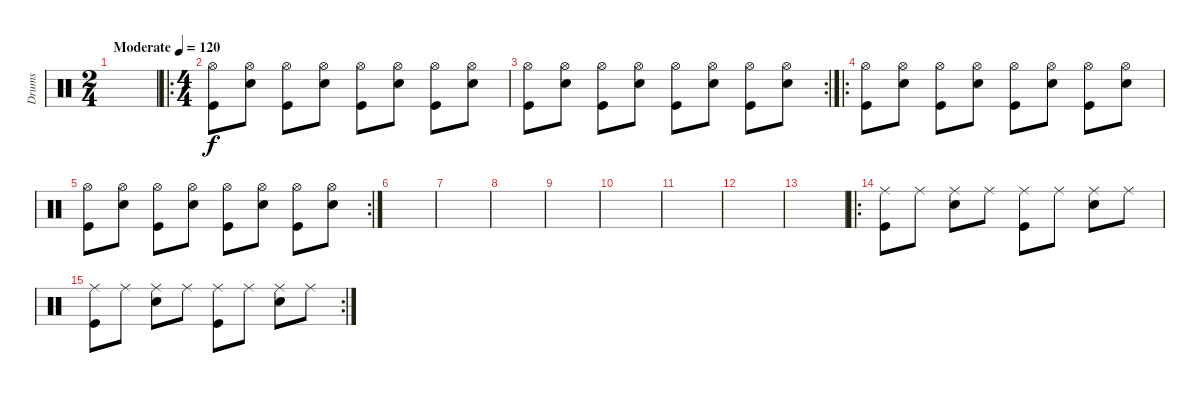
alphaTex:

\track ("Drums" "Drums") {instrument percussion}
\staff {score}
\articulation defaults
\ts (2 4)
\tempo (120 "Moderate")
\clef neutral
\ks c
|
\ro
\ts (4 4)
("Hi-Hat (open)" "Kick (hit)").8 ("Hi-Hat (open)" "Snare (hit) 2").8 ("Hi-Hat (open)" "Kick (hit)").8 ("Hi-Hat (open)" "Snare (hit) 2").8 ("Hi-Hat (open)" "Kick (hit)").8 ("Hi-Hat (open)" "Snare (hit) 2").8 ("Hi-Hat (open)" "Kick (hit)").8 ("Hi-Hat (open)" "Snare (hit) 2").8 |
\rc 2
("Hi-Hat (open)" "Kick (hit)").8 ("Hi-Hat (open)" "Snare (hit) 2").8 ("Hi-Hat (open)" "Kick (hit)").8 ("Hi-Hat (open)" "Snare (hit) 2").8 ("Hi-Hat (open)" "Kick (hit)").8 ("Hi-Hat (open)" "Snare (hit) 2").8 ("Hi-Hat (open)" "Kick (hit)").8 ("Hi-Hat (open)" "Snare (hit) 2").8 |
\ro
("Hi-Hat (open)" "Kick (hit)").8 ("Hi-Hat (open)" "Snare (hit) 2").8 ("Hi-Hat (open)" "Kick (hit)").8 ("Hi-Hat (open)" "Snare (hit) 2").8 ("Hi-Hat (open)" "Kick (hit)").8 ("Hi-Hat (open)" "Snare (hit) 2").8 ("Hi-Hat (open)" "Kick (hit)").8 ("Hi-Hat (open)" "Snare (hit) 2").8 |
\rc 2
("Hi-Hat (open)" "Kick (hit)").8 ("Hi-Hat (open)" "Snare (hit) 2").8 ("Hi-Hat (open)" "Kick (hit)").8 ("Hi-Hat (open)" "Snare (hit) 2").8 ("Hi-Hat (open)" "Kick (hit)").8 ("Hi-Hat (open)" "Snare (hit) 2").8 ("Hi-Hat (open)" "Kick (hit)").8 ("Hi-Hat (open)" "Snare (hit) 2").8 |
|
|
|
|
|
|
|
|
\ro
("Ride (middle)" "Kick (hit)").8 "Ride (middle)".8 ("Ride (middle)" "Snare (hit) 2").8 "Ride (middle)".8 ("Ride (middle)" "Kick (hit)").8 "Ride (middle)".8 ("Ride (middle)" "Snare (hit) 2").8 "Ride (middle)".8 |
\rc 2
("Ride (middle)" "Kick (hit)").8 "Ride (middle)".8 ("Ride (middle)" "Snare (hit) 2").8 "Ride (middle)".8 ("Ride (middle)" "Kick (hit)").8 "Ride (middle)".8 ("Ride (middle)" "Snare (hit) 2").8 "Ride (middle)".8
